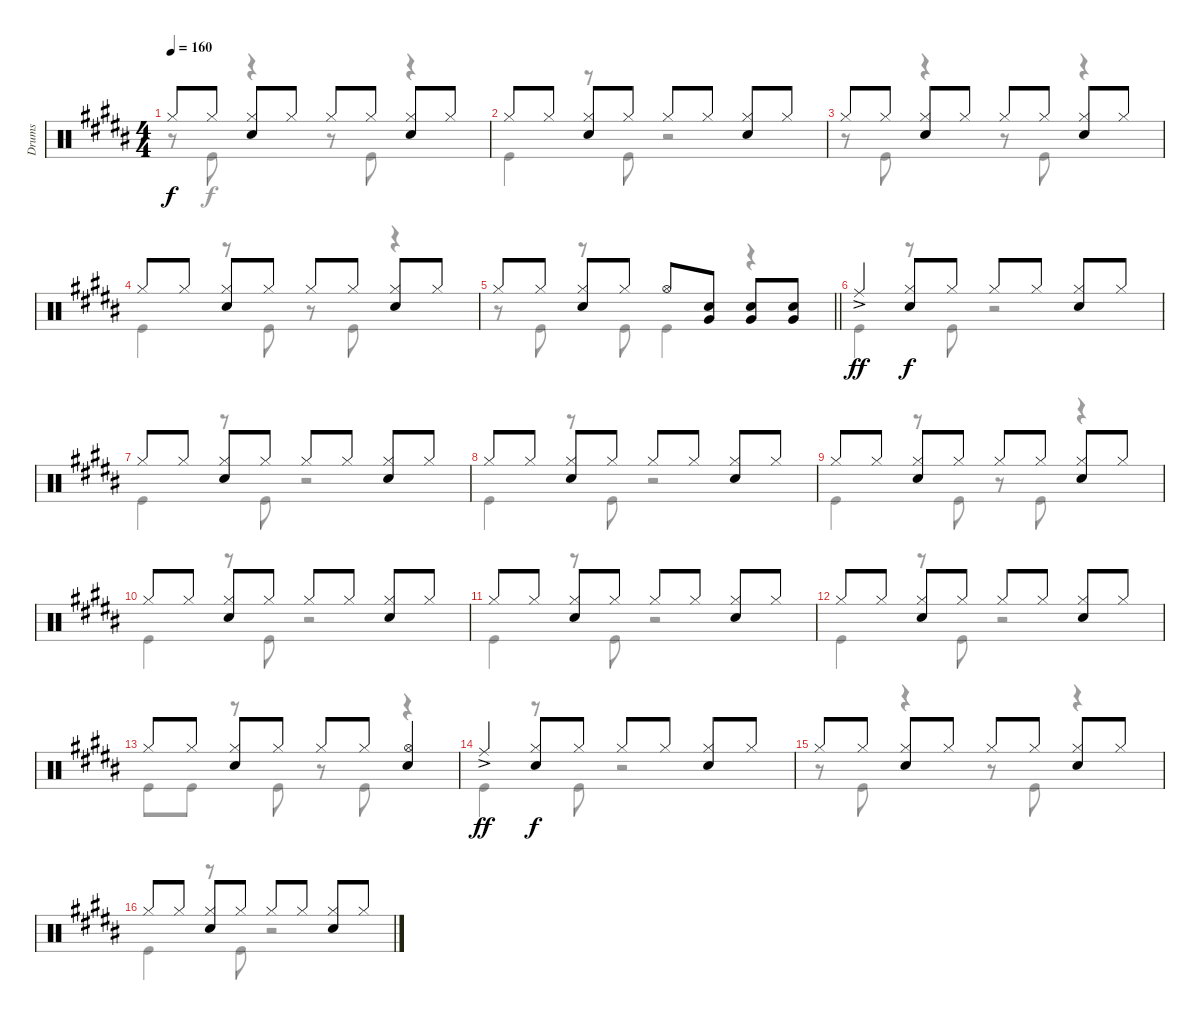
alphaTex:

\track ("Drums" "Drums") {instrument percussion}
\staff {score}
\articulation defaults
\voice
\ts (4 4)
\tempo 160
\clef neutral
\ks b "Hi-Hat (closed)".8{dy f} "Hi-Hat (closed)".8
("Hi-Hat (closed)" "Snare (hit) 2").8 "Hi-Hat (closed)".8 "Hi-Hat (closed)".8 "Hi-Hat (closed)".8 ("Hi-Hat (closed)" "Snare (hit) 2").8 "Hi-Hat (closed)".8 |
"Hi-Hat (closed)".8 "Hi-Hat (closed)".8 ("Hi-Hat (closed)" "Snare (hit) 2").8 "Hi-Hat (closed)".8 "Hi-Hat (closed)".8 "Hi-Hat (closed)".8 ("Hi-Hat (closed)" "Snare (hit) 2").8 "Hi-Hat (closed)".8 |
"Hi-Hat (closed)".8 "Hi-Hat (closed)".8 ("Hi-Hat (closed)" "Snare (hit) 2").8 "Hi-Hat (closed)".8 "Hi-Hat (closed)".8 "Hi-Hat (closed)".8 ("Hi-Hat (closed)" "Snare (hit) 2").8 "Hi-Hat (closed)".8 |
"Hi-Hat (closed)".8 "Hi-Hat (closed)".8 ("Hi-Hat (closed)" "Snare (hit) 2").8 "Hi-Hat (closed)".8 "Hi-Hat (closed)".8 "Hi-Hat (closed)".8 ("Hi-Hat (closed)" "Snare (hit) 2").8 "Hi-Hat (closed)".8 |
\barLineRight lightlight "Hi-Hat (closed)".8 "Hi-Hat (closed)".8
("Hi-Hat (closed)" "Snare (hit) 2").8 "Hi-Hat (closed)".8 "Hi-Hat (open)".8 ("Snare (hit) 2" "Very Low Tom (hit)").8 ("Snare (hit) 2" "Very Low Tom (hit)").8 ("Snare (hit) 2" "Very Low Tom (hit)").8 |
"Ride (middle)"{ac}.4{dy ff} ("Hi-Hat (closed)" "Snare (hit) 2").8{dy f} "Hi-Hat (closed)".8 "Hi-Hat (closed)".8 "Hi-Hat (closed)".8 ("Hi-Hat (closed)" "Snare (hit) 2").8 "Hi-Hat (closed)".8 |
"Hi-Hat (closed)".8 "Hi-Hat (closed)".8 ("Hi-Hat (closed)" "Snare (hit) 2").8 "Hi-Hat (closed)".8 "Hi-Hat (closed)".8 "Hi-Hat (closed)".8 ("Hi-Hat (closed)" "Snare (hit) 2").8 "Hi-Hat (closed)".8 |
"Hi-Hat (closed)".8 "Hi-Hat (closed)".8 ("Hi-Hat (closed)" "Snare (hit) 2").8 "Hi-Hat (closed)".8 "Hi-Hat (closed)".8 "Hi-Hat (closed)".8 ("Hi-Hat (closed)" "Snare (hit) 2").8 "Hi-Hat (closed)".8 |
"Hi-Hat (closed)".8 "Hi-Hat (closed)".8 ("Hi-Hat (closed)" "Snare (hit) 2").8 "Hi-Hat (closed)".8 "Hi-Hat (closed)".8 "Hi-Hat (closed)".8 ("Hi-Hat (closed)" "Snare (hit) 2").8 "Hi-Hat (closed)".8 |
"Hi-Hat (closed)".8 "Hi-Hat (closed)".8 ("Hi-Hat (closed)" "Snare (hit) 2").8 "Hi-Hat (closed)".8 "Hi-Hat (closed)".8 "Hi-Hat (closed)".8 ("Hi-Hat (closed)" "Snare (hit) 2").8 "Hi-Hat (closed)".8 |
"Hi-Hat (closed)".8 "Hi-Hat (closed)".8 ("Hi-Hat (closed)" "Snare (hit) 2").8 "Hi-Hat (closed)".8 "Hi-Hat (closed)".8 "Hi-Hat (closed)".8 ("Hi-Hat (closed)" "Snare (hit) 2").8 "Hi-Hat (closed)".8 |
"Hi-Hat (closed)".8 "Hi-Hat (closed)".8 ("Hi-Hat (closed)" "Snare (hit) 2").8 "Hi-Hat (closed)".8 "Hi-Hat (closed)".8 "Hi-Hat (closed)".8 ("Hi-Hat (closed)" "Snare (hit) 2").8 "Hi-Hat (closed)".8 |
"Hi-Hat (closed)".8 "Hi-Hat (closed)".8 ("Hi-Hat (closed)" "Snare (hit) 2").8 "Hi-Hat (closed)".8 "Hi-Hat (closed)".8 "Hi-Hat (closed)".8 ("Hi-Hat (open)" "Snare (hit) 2").4 |
"Ride (middle)"{ac}.4{dy ff} ("Hi-Hat (closed)" "Snare (hit) 2").8{dy f} "Hi-Hat (closed)".8 "Hi-Hat (closed)".8 "Hi-Hat (closed)".8 ("Hi-Hat (closed)" "Snare (hit) 2").8 "Hi-Hat (closed)".8 |
"Hi-Hat (closed)".8 "Hi-Hat (closed)".8 ("Hi-Hat (closed)" "Snare (hit) 2").8 "Hi-Hat (closed)".8 "Hi-Hat (closed)".8 "Hi-Hat (closed)".8 ("Hi-Hat (closed)" "Snare (hit) 2").8 "Hi-Hat (closed)".8 |
"Hi-Hat (closed)".8 "Hi-Hat (closed)".8 ("Hi-Hat (closed)" "Snare (hit) 2").8 "Hi-Hat (closed)".8 "Hi-Hat (closed)".8 "Hi-Hat (closed)".8 ("Hi-Hat (closed)" "Snare (hit) 2").8 "Hi-Hat (closed)".8
\voice
\clef neutral
\ottava regular
\simile none
\ks b
r.8{dy f} "Kick (hit)".8 r.4 r.8 "Kick (hit)".8 r.4 |
"Kick (hit)".4 r.8 "Kick (hit)".8 r.2 |
r.8 "Kick (hit)".8 r.4 r.8 "Kick (hit)".8 r.4 |
"Kick (hit)".4 r.8 "Kick (hit)".8 r.8 "Kick (hit)".8 r.4 |
\barLineRight lightlight
r.8 "Kick (hit)".8 r.8 "Kick (hit)".8 "Kick (hit)".4 r.4 |
"Kick (hit)".4 r.8 "Kick (hit)".8 r.2 |
"Kick (hit)".4 r.8 "Kick (hit)".8 r.2 |
"Kick (hit)".4 r.8 "Kick (hit)".8 r.2 |
"Kick (hit)".4 r.8 "Kick (hit)".8 r.8 "Kick (hit)".8 r.4 |
"Kick (hit)".4 r.8 "Kick (hit)".8 r.2 |
"Kick (hit)".4 r.8 "Kick (hit)".8 r.2 |
"Kick (hit)".4 r.8 "Kick (hit)".8 r.2 |
"Kick (hit)".8 "Kick (hit)".8 r.8 "Kick (hit)".8 r.8 "Kick (hit)".8 r.4 |
"Kick (hit)".4 r.8 "Kick (hit)".8 r.2 |
r.8 "Kick (hit)".8 r.4 r.8 "Kick (hit)".8 r.4 |
"Kick (hit)".4 r.8 "Kick (hit)".8 r.2
